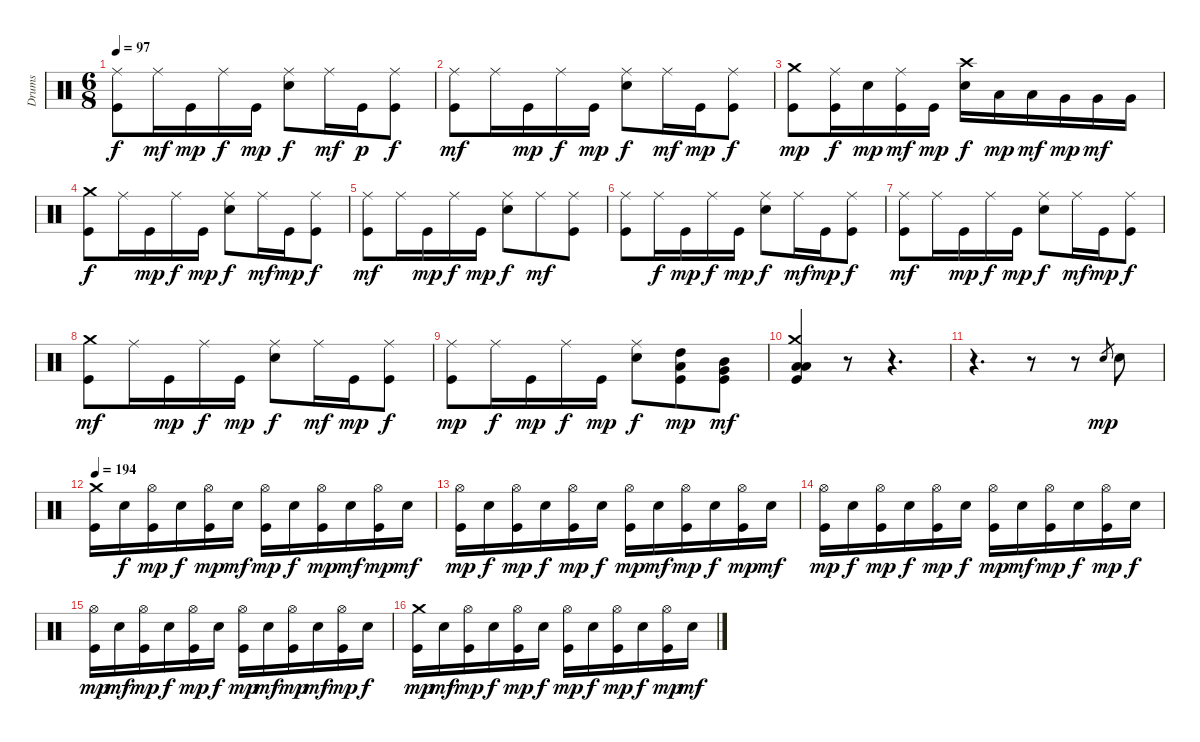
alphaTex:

\track ("Drums" "Drums") {instrument percussion}
\staff {score}
\articulation defaults
\ts (6 8)
\tempo 97
\clef neutral
\ks c
("Kick (hit)" "Ride (middle)").8{dy f} "Ride (middle)".16{dy mf} "Kick (hit)".16{dy mp} "Ride (middle)".16{dy f} "Kick (hit)".16{dy mp} ("Snare (hit) 2" "Ride (middle)").8{dy f} "Ride (middle)".16{dy mf} "Kick (hit)".16{dy p} ("Kick (hit)" "Ride (middle)").8{dy f} |
("Kick (hit)" "Ride (middle)").8{dy mf} "Ride (middle)".16 "Kick (hit)".16{dy mp} "Ride (middle)".16{dy f} "Kick (hit)".16{dy mp} ("Snare (hit) 2" "Ride (middle)").8{dy f} "Ride (middle)".16{dy mf} "Kick (hit)".16{dy mp} ("Kick (hit)" "Ride (middle)").8{dy f} |
("Crash medium (hit)" "Kick (hit)").8{dy mp} ("Kick (hit)" "Ride (middle)").16{dy f} "Snare (hit) 2".16{dy mp} ("Kick (hit)" "Ride (middle)").16{dy mf} "Kick (hit)".16{dy mp} ("Crash high (hit)" "Snare (hit) 2").16{dy f} "Low Tom (hit)".16{dy mp} "Low Tom (hit)".16{dy mf} "Very Low Tom (hit)".16{dy mp} "Very Low Tom (hit)".16{dy mf} "Very Low Tom (hit)".16 |
("Crash medium (hit)" "Kick (hit)").8{dy f} "Ride (middle)".16 "Kick (hit)".16{dy mp} "Ride (middle)".16{dy f} "Kick (hit)".16{dy mp} ("Snare (hit) 2" "Ride (middle)").8{dy f} "Ride (middle)".16{dy mf} "Kick (hit)".16{dy mp} ("Kick (hit)" "Ride (middle)").8{dy f} |
("Kick (hit)" "Ride (middle)").8{dy mf} "Ride (middle)".16 "Kick (hit)".16{dy mp} "Ride (middle)".16{dy f} "Kick (hit)".16{dy mp} ("Snare (hit) 2" "Ride (middle)").8{dy f} "Ride (middle)".8{dy mf} ("Kick (hit)" "Ride (middle)").8 |
("Kick (hit)" "Ride (middle)").8 "Ride (middle)".16{dy f} "Kick (hit)".16{dy mp} "Ride (middle)".16{dy f} "Kick (hit)".16{dy mp} ("Snare (hit) 2" "Ride (middle)").8{dy f} "Ride (middle)".16{dy mf} "Kick (hit)".16{dy mp} ("Kick (hit)" "Ride (middle)").8{dy f} |
("Kick (hit)" "Ride (middle)").8{dy mf} "Ride (middle)".16 "Kick (hit)".16{dy mp} "Ride (middle)".16{dy f} "Kick (hit)".16{dy mp} ("Snare (hit) 2" "Ride (middle)").8{dy f} "Ride (middle)".16{dy mf} "Kick (hit)".16{dy mp} ("Kick (hit)" "Ride (middle)").8{dy f} |
("Crash medium (hit)" "Kick (hit)").8{dy mf} "Ride (middle)".16 "Kick (hit)".16{dy mp} "Ride (middle)".16{dy f} "Kick (hit)".16{dy mp} ("Snare (hit) 2" "Ride (middle)").8{dy f} "Ride (middle)".16{dy mf} "Kick (hit)".16{dy mp} ("Kick (hit)" "Ride (middle)").8{dy f} |
("Kick (hit)" "Ride (middle)").8{dy mp} "Ride (middle)".16{dy f} "Kick (hit)".16{dy mp} "Ride (middle)".16{dy f} "Kick (hit)".16{dy mp} ("Snare (hit) 2" "Ride (middle)").8{dy f} ("Low Tom (hit)" "High Tom (hit)" "Kick (hit)").8{dy mp} ("Very Low Tom (hit)" "Mid Tom (hit)" "Kick (hit)").8{dy mf} |
("Low Floor Tom (hit)" "Low Tom (hit)" "Crash medium (hit)" "Kick (hit)").4 r.8 r.4{d} |
r.4{d} r.8 r.8 "Snare (hit) 2".8{gr dy mp} "Snare (hit) 2".8 |
\tempo 194
("Crash medium (hit)" "Kick (hit)").16 "Snare (hit) 2".16{dy f} ("Hi-Hat (open)" "Kick (hit)").16{dy mp} "Snare (hit) 2".16{dy f} ("Hi-Hat (open)" "Kick (hit)").16{dy mp} "Snare (hit) 2".16{dy mf} ("Hi-Hat (open)" "Kick (hit)").16{dy mp} "Snare (hit) 2".16{dy f} ("Hi-Hat (open)" "Kick (hit)").16{dy mp} "Snare (hit) 2".16{dy mf} ("Hi-Hat (open)" "Kick (hit)").16{dy mp} "Snare (hit) 2".16{dy mf} |
("Hi-Hat (open)" "Kick (hit)").16{dy mp} "Snare (hit) 2".16{dy f} ("Hi-Hat (open)" "Kick (hit)").16{dy mp} "Snare (hit) 2".16{dy f} ("Hi-Hat (open)" "Kick (hit)").16{dy mp} "Snare (hit) 2".16{dy f} ("Hi-Hat (open)" "Kick (hit)").16{dy mp} "Snare (hit) 2".16{dy mf} ("Hi-Hat (open)" "Kick (hit)").16{dy mp} "Snare (hit) 2".16{dy f} ("Hi-Hat (open)" "Kick (hit)").16{dy mp} "Snare (hit) 2".16{dy mf} |
("Hi-Hat (open)" "Kick (hit)").16{dy mp} "Snare (hit) 2".16{dy f} ("Hi-Hat (open)" "Kick (hit)").16{dy mp} "Snare (hit) 2".16{dy f} ("Hi-Hat (open)" "Kick (hit)").16{dy mp} "Snare (hit) 2".16{dy f} ("Hi-Hat (open)" "Kick (hit)").16{dy mp} "Snare (hit) 2".16{dy mf} ("Hi-Hat (open)" "Kick (hit)").16{dy mp} "Snare (hit) 2".16{dy f} ("Hi-Hat (open)" "Kick (hit)").16{dy mp} "Snare (hit) 2".16{dy f} |
("Hi-Hat (open)" "Kick (hit)").16{dy mp} "Snare (hit) 2".16{dy mf} ("Hi-Hat (open)" "Kick (hit)").16{dy mp} "Snare (hit) 2".16{dy f} ("Hi-Hat (open)" "Kick (hit)").16{dy mp} "Snare (hit) 2".16{dy f} ("Hi-Hat (open)" "Kick (hit)").16{dy mp} "Snare (hit) 2".16{dy mf} ("Hi-Hat (open)" "Kick (hit)").16{dy mp} "Snare (hit) 2".16{dy mf} ("Hi-Hat (open)" "Kick (hit)").16{dy mp} "Snare (hit) 2".16{dy f} |
("Crash medium (hit)" "Kick (hit)").16{dy mp} "Snare (hit) 2".16{dy mf} ("Hi-Hat (open)" "Kick (hit)").16{dy mp} "Snare (hit) 2".16{dy f} ("Hi-Hat (open)" "Kick (hit)").16{dy mp} "Snare (hit) 2".16{dy f} ("Hi-Hat (open)" "Kick (hit)").16{dy mp} "Snare (hit) 2".16{dy f} ("Hi-Hat (open)" "Kick (hit)").16{dy mp} "Snare (hit) 2".16{dy f} ("Hi-Hat (open)" "Kick (hit)").16{dy mp} "Snare (hit) 2".16{dy mf}
